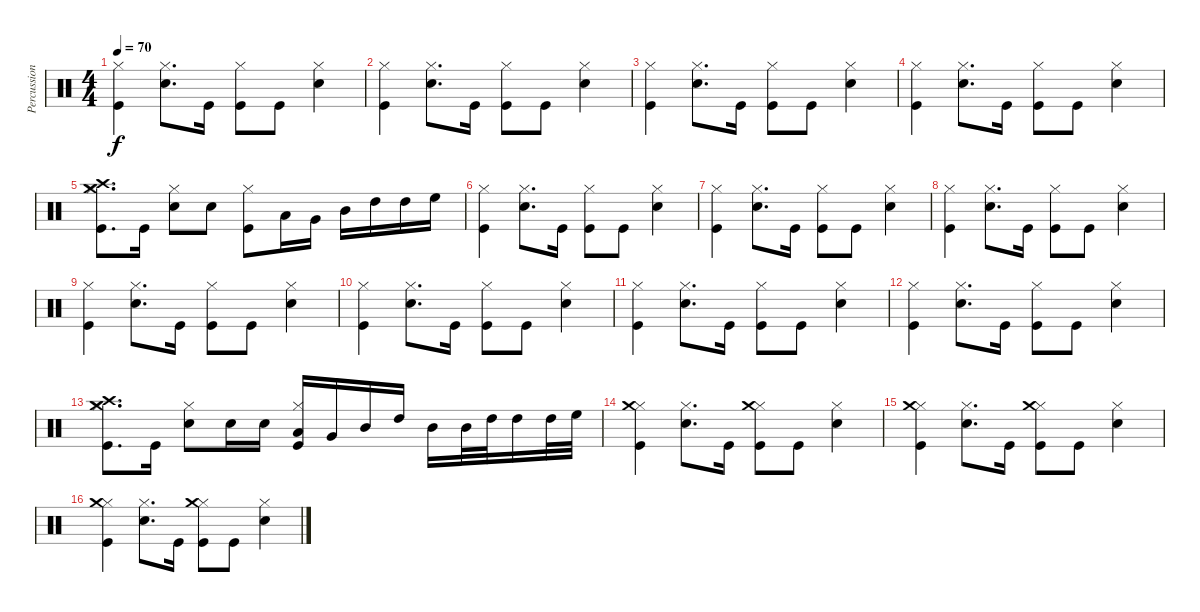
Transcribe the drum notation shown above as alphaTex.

\track ("Percussion" "Percussion") {instrument percussion}
\staff {score}
\articulation defaults
\ts (4 4)
\tempo 70
\clef neutral
\ks c
("Kick (hit)" "Hi-Hat (closed)").4{dy f} ("Electric Snare (hit)" "Hi-Hat (closed)").8{d} "Kick (hit)".16 ("Kick (hit)" "Hi-Hat (closed)").8 "Kick (hit)".8 ("Electric Snare (hit)" "Hi-Hat (closed)").4 |
("Kick (hit)" "Hi-Hat (closed)").4 ("Electric Snare (hit)" "Hi-Hat (closed)").8{d} "Kick (hit)".16 ("Kick (hit)" "Hi-Hat (closed)").8 "Kick (hit)".8 ("Electric Snare (hit)" "Hi-Hat (closed)").4 |
("Kick (hit)" "Hi-Hat (closed)").4 ("Electric Snare (hit)" "Hi-Hat (closed)").8{d} "Kick (hit)".16 ("Kick (hit)" "Hi-Hat (closed)").8 "Kick (hit)".8 ("Electric Snare (hit)" "Hi-Hat (closed)").4 |
("Kick (hit)" "Hi-Hat (closed)").4 ("Electric Snare (hit)" "Hi-Hat (closed)").8{d} "Kick (hit)".16 ("Kick (hit)" "Hi-Hat (closed)").8 "Kick (hit)".8 ("Electric Snare (hit)" "Hi-Hat (closed)").4 |
("Kick (hit)" "Hi-Hat (closed)" "Crash high (hit)" "Crash medium (hit)").8{d} "Kick (hit)".16 ("Electric Snare (hit)" "Hi-Hat (closed)").8 "Electric Snare (hit)".8 ("Kick (hit)" "Hi-Hat (closed)").8 "Low Floor Tom (hit)".16 "Very Low Tom (hit)".16 "Mid Tom (hit)".16 "High Tom (hit)".16 "High Tom (hit)".16 "High Floor Tom (hit)".16 |
("Kick (hit)" "Hi-Hat (closed)").4 ("Electric Snare (hit)" "Hi-Hat (closed)").8{d} "Kick (hit)".16 ("Kick (hit)" "Hi-Hat (closed)").8 "Kick (hit)".8 ("Electric Snare (hit)" "Hi-Hat (closed)").4 |
("Kick (hit)" "Hi-Hat (closed)").4 ("Electric Snare (hit)" "Hi-Hat (closed)").8{d} "Kick (hit)".16 ("Kick (hit)" "Hi-Hat (closed)").8 "Kick (hit)".8 ("Electric Snare (hit)" "Hi-Hat (closed)").4 |
("Kick (hit)" "Hi-Hat (closed)").4 ("Electric Snare (hit)" "Hi-Hat (closed)").8{d} "Kick (hit)".16 ("Kick (hit)" "Hi-Hat (closed)").8 "Kick (hit)".8 ("Electric Snare (hit)" "Hi-Hat (closed)").4 |
("Kick (hit)" "Hi-Hat (closed)").4 ("Electric Snare (hit)" "Hi-Hat (closed)").8{d} "Kick (hit)".16 ("Kick (hit)" "Hi-Hat (closed)").8 "Kick (hit)".8 ("Electric Snare (hit)" "Hi-Hat (closed)").4 |
("Kick (hit)" "Hi-Hat (closed)").4 ("Electric Snare (hit)" "Hi-Hat (closed)").8{d} "Kick (hit)".16 ("Kick (hit)" "Hi-Hat (closed)").8 "Kick (hit)".8 ("Electric Snare (hit)" "Hi-Hat (closed)").4 |
("Kick (hit)" "Hi-Hat (closed)").4 ("Electric Snare (hit)" "Hi-Hat (closed)").8{d} "Kick (hit)".16 ("Kick (hit)" "Hi-Hat (closed)").8 "Kick (hit)".8 ("Electric Snare (hit)" "Hi-Hat (closed)").4 |
("Kick (hit)" "Hi-Hat (closed)").4 ("Electric Snare (hit)" "Hi-Hat (closed)").8{d} "Kick (hit)".16 ("Kick (hit)" "Hi-Hat (closed)").8 "Kick (hit)".8 ("Electric Snare (hit)" "Hi-Hat (closed)").4 |
("Kick (hit)" "Hi-Hat (closed)" "Crash high (hit)" "Crash medium (hit)").8{d} "Kick (hit)".16 ("Electric Snare (hit)" "Hi-Hat (closed)").8 "Electric Snare (hit)".16 "Electric Snare (hit)".16 ("Kick (hit)" "Hi-Hat (closed)" "Low Floor Tom (hit)").16 "Very Low Tom (hit)".16 "Mid Tom (hit)".16 "High Tom (hit)".16 "Mid Tom (hit)".16 "Mid Tom (hit)".32 "High Tom (hit)".32 "High Tom (hit)".16 "High Tom (hit)".32 "High Floor Tom (hit)".32 |
("Kick (hit)" "Hi-Hat (closed)" "Crash medium (hit)").4 ("Electric Snare (hit)" "Hi-Hat (closed)").8{d} "Kick (hit)".16 ("Kick (hit)" "Hi-Hat (closed)" "Crash medium (hit)").8 "Kick (hit)".8 ("Electric Snare (hit)" "Hi-Hat (closed)").4 |
("Kick (hit)" "Hi-Hat (closed)" "Crash medium (hit)").4 ("Electric Snare (hit)" "Hi-Hat (closed)").8{d} "Kick (hit)".16 ("Kick (hit)" "Hi-Hat (closed)" "Crash medium (hit)").8 "Kick (hit)".8 ("Electric Snare (hit)" "Hi-Hat (closed)").4 |
("Kick (hit)" "Hi-Hat (closed)" "Crash medium (hit)").4 ("Electric Snare (hit)" "Hi-Hat (closed)").8{d} "Kick (hit)".16 ("Kick (hit)" "Hi-Hat (closed)" "Crash medium (hit)").8 "Kick (hit)".8 ("Electric Snare (hit)" "Hi-Hat (closed)").4
